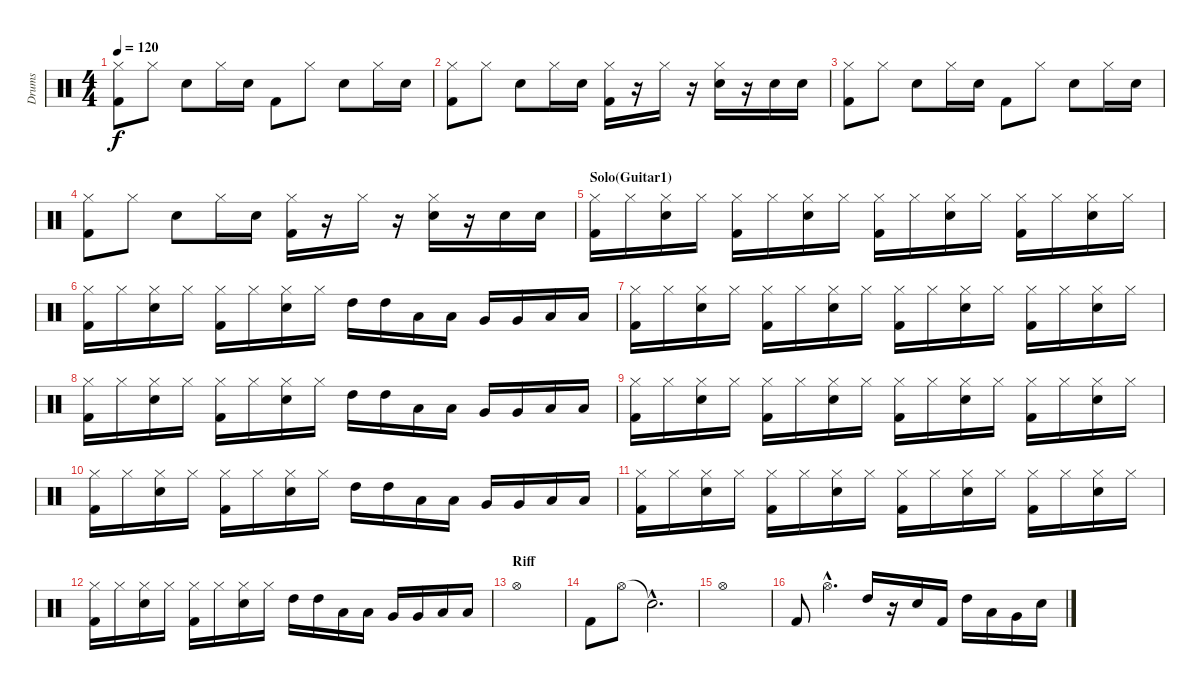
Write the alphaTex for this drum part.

\track ("Drums" "Drums") {instrument percussion}
\staff {score}
\articulation defaults
\ts (4 4)
\tempo 120
\clef neutral
\ks c
("Hi-Hat (closed)" "Kick (hit) 2").8{dy f} "Hi-Hat (closed)".8 "Electric Snare (hit)".8 "Hi-Hat (closed)".16 "Electric Snare (hit)".16 "Kick (hit) 2".8 "Hi-Hat (closed)".8 "Electric Snare (hit)".8 "Hi-Hat (closed)".16 "Electric Snare (hit)".16 |
("Hi-Hat (closed)" "Kick (hit) 2").8 "Hi-Hat (closed)".8 "Electric Snare (hit)".8 "Hi-Hat (closed)".16 "Electric Snare (hit)".16 ("Hi-Hat (closed)" "Kick (hit) 2").16 r.16 "Hi-Hat (closed)".16 r.16 ("Hi-Hat (closed)" "Electric Snare (hit)").16 r.16 "Electric Snare (hit)".16 "Electric Snare (hit)".16 |
("Hi-Hat (closed)" "Kick (hit) 2").8 "Hi-Hat (closed)".8 "Electric Snare (hit)".8 "Hi-Hat (closed)".16 "Electric Snare (hit)".16 "Kick (hit) 2".8 "Hi-Hat (closed)".8 "Electric Snare (hit)".8 "Hi-Hat (closed)".16 "Electric Snare (hit)".16 |
("Hi-Hat (closed)" "Kick (hit) 2").8 "Hi-Hat (closed)".8 "Electric Snare (hit)".8 "Hi-Hat (closed)".16 "Electric Snare (hit)".16 ("Hi-Hat (closed)" "Kick (hit) 2").16 r.16 "Hi-Hat (closed)".16 r.16 ("Hi-Hat (closed)" "Electric Snare (hit)").16 r.16 "Electric Snare (hit)".16 "Electric Snare (hit)".16 |
\section ("" "Solo(Guitar1)")
("Hi-Hat (closed)" "Kick (hit) 2").16 "Hi-Hat (closed)".16 ("Hi-Hat (closed)" "Electric Snare (hit)").16 "Hi-Hat (closed)".16 ("Hi-Hat (closed)" "Kick (hit) 2").16 "Hi-Hat (closed)".16 ("Electric Snare (hit)" "Hi-Hat (closed)").16 "Hi-Hat (closed)".16 ("Hi-Hat (closed)" "Kick (hit) 2").16 "Hi-Hat (closed)".16 ("Electric Snare (hit)" "Hi-Hat (closed)").16 "Hi-Hat (closed)".16 ("Hi-Hat (closed)" "Kick (hit) 2").16 "Hi-Hat (closed)".16 ("Electric Snare (hit)" "Hi-Hat (closed)").16 "Hi-Hat (closed)".16 |
("Hi-Hat (closed)" "Kick (hit) 2").16 "Hi-Hat (closed)".16 ("Hi-Hat (closed)" "Electric Snare (hit)").16 "Hi-Hat (closed)".16 ("Hi-Hat (closed)" "Kick (hit) 2").16 "Hi-Hat (closed)".16 ("Electric Snare (hit)" "Hi-Hat (closed)").16 "Hi-Hat (closed)".16 "High Tom (hit)".16 "High Tom (hit)".16 "Low Tom (hit)".16 "Low Tom (hit)".16 "Very Low Tom (hit)".16 "Very Low Tom (hit)".16 "Low Floor Tom (hit)".16 "Low Floor Tom (hit)".16 |
("Hi-Hat (closed)" "Kick (hit) 2").16 "Hi-Hat (closed)".16 ("Hi-Hat (closed)" "Electric Snare (hit)").16 "Hi-Hat (closed)".16 ("Hi-Hat (closed)" "Kick (hit) 2").16 "Hi-Hat (closed)".16 ("Electric Snare (hit)" "Hi-Hat (closed)").16 "Hi-Hat (closed)".16 ("Hi-Hat (closed)" "Kick (hit) 2").16 "Hi-Hat (closed)".16 ("Electric Snare (hit)" "Hi-Hat (closed)").16 "Hi-Hat (closed)".16 ("Hi-Hat (closed)" "Kick (hit) 2").16 "Hi-Hat (closed)".16 ("Electric Snare (hit)" "Hi-Hat (closed)").16 "Hi-Hat (closed)".16 |
("Hi-Hat (closed)" "Kick (hit) 2").16 "Hi-Hat (closed)".16 ("Hi-Hat (closed)" "Electric Snare (hit)").16 "Hi-Hat (closed)".16 ("Hi-Hat (closed)" "Kick (hit) 2").16 "Hi-Hat (closed)".16 ("Electric Snare (hit)" "Hi-Hat (closed)").16 "Hi-Hat (closed)".16 "High Tom (hit)".16 "High Tom (hit)".16 "Low Tom (hit)".16 "Low Tom (hit)".16 "Very Low Tom (hit)".16 "Very Low Tom (hit)".16 "Low Floor Tom (hit)".16 "Low Floor Tom (hit)".16 |
("Hi-Hat (closed)" "Kick (hit) 2").16 "Hi-Hat (closed)".16 ("Hi-Hat (closed)" "Electric Snare (hit)").16 "Hi-Hat (closed)".16 ("Hi-Hat (closed)" "Kick (hit) 2").16 "Hi-Hat (closed)".16 ("Electric Snare (hit)" "Hi-Hat (closed)").16 "Hi-Hat (closed)".16 ("Hi-Hat (closed)" "Kick (hit) 2").16 "Hi-Hat (closed)".16 ("Electric Snare (hit)" "Hi-Hat (closed)").16 "Hi-Hat (closed)".16 ("Hi-Hat (closed)" "Kick (hit) 2").16 "Hi-Hat (closed)".16 ("Electric Snare (hit)" "Hi-Hat (closed)").16 "Hi-Hat (closed)".16 |
("Hi-Hat (closed)" "Kick (hit) 2").16 "Hi-Hat (closed)".16 ("Hi-Hat (closed)" "Electric Snare (hit)").16 "Hi-Hat (closed)".16 ("Hi-Hat (closed)" "Kick (hit) 2").16 "Hi-Hat (closed)".16 ("Electric Snare (hit)" "Hi-Hat (closed)").16 "Hi-Hat (closed)".16 "High Tom (hit)".16 "High Tom (hit)".16 "Low Tom (hit)".16 "Low Tom (hit)".16 "Very Low Tom (hit)".16 "Very Low Tom (hit)".16 "Low Floor Tom (hit)".16 "Low Floor Tom (hit)".16 |
("Hi-Hat (closed)" "Kick (hit) 2").16 "Hi-Hat (closed)".16 ("Hi-Hat (closed)" "Electric Snare (hit)").16 "Hi-Hat (closed)".16 ("Hi-Hat (closed)" "Kick (hit) 2").16 "Hi-Hat (closed)".16 ("Electric Snare (hit)" "Hi-Hat (closed)").16 "Hi-Hat (closed)".16 ("Hi-Hat (closed)" "Kick (hit) 2").16 "Hi-Hat (closed)".16 ("Electric Snare (hit)" "Hi-Hat (closed)").16 "Hi-Hat (closed)".16 ("Hi-Hat (closed)" "Kick (hit) 2").16 "Hi-Hat (closed)".16 ("Electric Snare (hit)" "Hi-Hat (closed)").16 "Hi-Hat (closed)".16 |
("Hi-Hat (closed)" "Kick (hit) 2").16 "Hi-Hat (closed)".16 ("Hi-Hat (closed)" "Electric Snare (hit)").16 "Hi-Hat (closed)".16 ("Hi-Hat (closed)" "Kick (hit) 2").16 "Hi-Hat (closed)".16 ("Electric Snare (hit)" "Hi-Hat (closed)").16 "Hi-Hat (closed)".16 "High Tom (hit)".16 "High Tom (hit)".16 "Low Tom (hit)".16 "Low Tom (hit)".16 "Very Low Tom (hit)".16 "Very Low Tom (hit)".16 "Low Floor Tom (hit)".16 "Low Floor Tom (hit)".16 |
\section ("" "Riff")
"Hi-Hat (open)".1 |
"Kick (hit) 2".8 "Hi-Hat (open)".8 "Snare (hit)"{hac t}.2{d} |
"Hi-Hat (open)".1 |
"Kick (hit) 2".8 "Hi-Hat (open)"{hac}.4{d} "High Tom (hit)".16 r.16 "Electric Snare (hit)".16 "Kick (hit) 2".16 "High Tom (hit)".16 "Low Tom (hit)".16 "Very Low Tom (hit)".16 "Electric Snare (hit)".16
